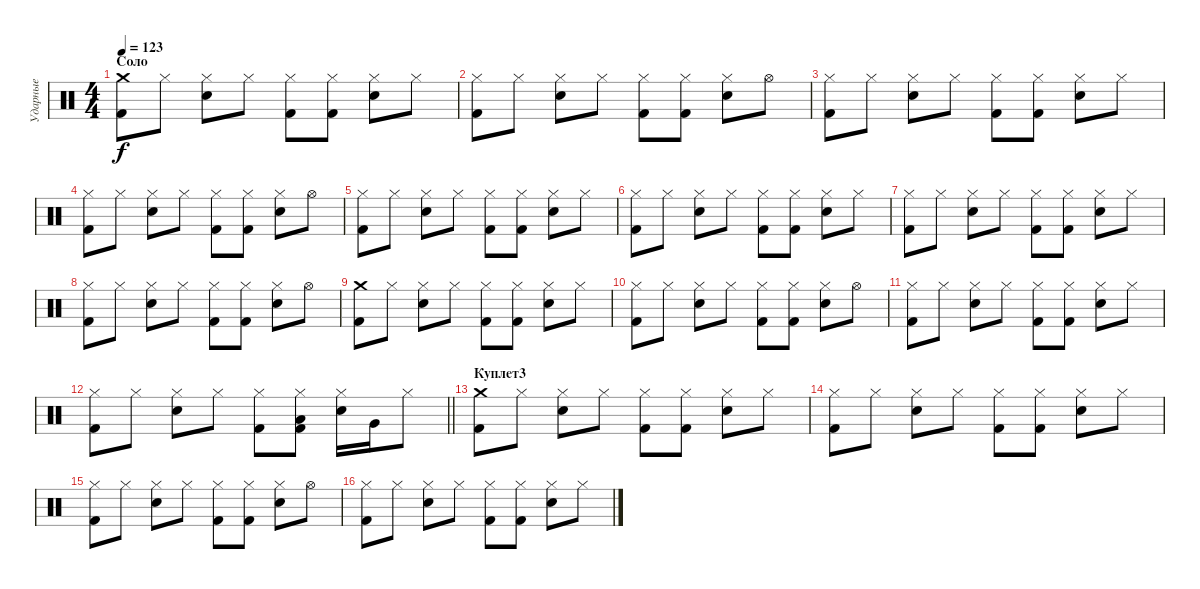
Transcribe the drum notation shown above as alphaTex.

\track ("Ударные" "Ударные") {instrument percussion}
\staff {score}
\articulation defaults
\ts (4 4)
\section ("" "Соло")
\tempo 123
\clef neutral
\ks c
("Crash medium (hit)" "Kick (hit) 2").8{dy f} "Hi-Hat (closed)".8 ("Hi-Hat (closed)" "Electric Snare (hit)").8 "Hi-Hat (closed)".8 ("Hi-Hat (closed)" "Kick (hit) 2").8 ("Hi-Hat (closed)" "Kick (hit) 2").8 ("Hi-Hat (closed)" "Electric Snare (hit)").8 "Hi-Hat (closed)".8 |
("Hi-Hat (closed)" "Kick (hit) 2").8 "Hi-Hat (closed)".8 ("Hi-Hat (closed)" "Electric Snare (hit)").8 "Hi-Hat (closed)".8 ("Hi-Hat (closed)" "Kick (hit) 2").8 ("Hi-Hat (closed)" "Kick (hit) 2").8 ("Hi-Hat (closed)" "Electric Snare (hit)").8 "Hi-Hat (open)".8 |
("Hi-Hat (closed)" "Kick (hit) 2").8 "Hi-Hat (closed)".8 ("Hi-Hat (closed)" "Electric Snare (hit)").8 "Hi-Hat (closed)".8 ("Hi-Hat (closed)" "Kick (hit) 2").8 ("Hi-Hat (closed)" "Kick (hit) 2").8 ("Hi-Hat (closed)" "Electric Snare (hit)").8 "Hi-Hat (closed)".8 |
("Hi-Hat (closed)" "Kick (hit) 2").8 "Hi-Hat (closed)".8 ("Hi-Hat (closed)" "Electric Snare (hit)").8 "Hi-Hat (closed)".8 ("Hi-Hat (closed)" "Kick (hit) 2").8 ("Hi-Hat (closed)" "Kick (hit) 2").8 ("Hi-Hat (closed)" "Electric Snare (hit)").8 "Hi-Hat (open)".8 |
("Hi-Hat (closed)" "Kick (hit) 2").8 "Hi-Hat (closed)".8 ("Hi-Hat (closed)" "Electric Snare (hit)").8 "Hi-Hat (closed)".8 ("Hi-Hat (closed)" "Kick (hit) 2").8 ("Hi-Hat (closed)" "Kick (hit) 2").8 ("Hi-Hat (closed)" "Electric Snare (hit)").8 "Hi-Hat (closed)".8 |
("Hi-Hat (closed)" "Kick (hit) 2").8 "Hi-Hat (closed)".8 ("Hi-Hat (closed)" "Electric Snare (hit)").8 "Hi-Hat (closed)".8 ("Hi-Hat (closed)" "Kick (hit) 2").8 ("Hi-Hat (closed)" "Kick (hit) 2").8 ("Hi-Hat (closed)" "Electric Snare (hit)").8 "Hi-Hat (closed)".8 |
("Hi-Hat (closed)" "Kick (hit) 2").8 "Hi-Hat (closed)".8 ("Hi-Hat (closed)" "Electric Snare (hit)").8 "Hi-Hat (closed)".8 ("Hi-Hat (closed)" "Kick (hit) 2").8 ("Hi-Hat (closed)" "Kick (hit) 2").8 ("Hi-Hat (closed)" "Electric Snare (hit)").8 "Hi-Hat (closed)".8 |
("Hi-Hat (closed)" "Kick (hit) 2").8 "Hi-Hat (closed)".8 ("Hi-Hat (closed)" "Electric Snare (hit)").8 "Hi-Hat (closed)".8 ("Hi-Hat (closed)" "Kick (hit) 2").8 ("Hi-Hat (closed)" "Kick (hit) 2").8 ("Hi-Hat (closed)" "Electric Snare (hit)").8 "Hi-Hat (open)".8 |
("Crash medium (hit)" "Kick (hit) 2").8 "Hi-Hat (closed)".8 ("Hi-Hat (closed)" "Electric Snare (hit)").8 "Hi-Hat (closed)".8 ("Hi-Hat (closed)" "Kick (hit) 2").8 ("Hi-Hat (closed)" "Kick (hit) 2").8 ("Hi-Hat (closed)" "Electric Snare (hit)").8 "Hi-Hat (closed)".8 |
("Hi-Hat (closed)" "Kick (hit) 2").8 "Hi-Hat (closed)".8 ("Hi-Hat (closed)" "Electric Snare (hit)").8 "Hi-Hat (closed)".8 ("Hi-Hat (closed)" "Kick (hit) 2").8 ("Hi-Hat (closed)" "Kick (hit) 2").8 ("Hi-Hat (closed)" "Electric Snare (hit)").8 "Hi-Hat (open)".8 |
("Hi-Hat (closed)" "Kick (hit) 2").8 "Hi-Hat (closed)".8 ("Hi-Hat (closed)" "Electric Snare (hit)").8 "Hi-Hat (closed)".8 ("Hi-Hat (closed)" "Kick (hit) 2").8 ("Hi-Hat (closed)" "Kick (hit) 2").8 ("Hi-Hat (closed)" "Electric Snare (hit)").8 "Hi-Hat (closed)".8 |
\barLineRight lightlight
("Hi-Hat (closed)" "Kick (hit) 2").8 "Hi-Hat (closed)".8 ("Hi-Hat (closed)" "Electric Snare (hit)").8 "Hi-Hat (closed)".8 ("Hi-Hat (closed)" "Kick (hit) 2").8 ("Hi-Hat (closed)" "Low Tom (hit)" "Kick (hit) 2").8 ("Hi-Hat (closed)" "Electric Snare (hit)").16 "Very Low Tom (hit)".16 "Hi-Hat (closed)".8 |
\section ("" "Куплет3")
("Crash medium (hit)" "Kick (hit) 2").8 "Hi-Hat (closed)".8 ("Hi-Hat (closed)" "Electric Snare (hit)").8 "Hi-Hat (closed)".8 ("Hi-Hat (closed)" "Kick (hit) 2").8 ("Hi-Hat (closed)" "Kick (hit) 2").8 ("Hi-Hat (closed)" "Electric Snare (hit)").8 "Hi-Hat (closed)".8 |
("Hi-Hat (closed)" "Kick (hit) 2").8 "Hi-Hat (closed)".8 ("Hi-Hat (closed)" "Electric Snare (hit)").8 "Hi-Hat (closed)".8 ("Hi-Hat (closed)" "Kick (hit) 2").8 ("Hi-Hat (closed)" "Kick (hit) 2").8 ("Hi-Hat (closed)" "Electric Snare (hit)").8 "Hi-Hat (closed)".8 |
("Hi-Hat (closed)" "Kick (hit) 2").8 "Hi-Hat (closed)".8 ("Hi-Hat (closed)" "Electric Snare (hit)").8 "Hi-Hat (closed)".8 ("Hi-Hat (closed)" "Kick (hit) 2").8 ("Hi-Hat (closed)" "Kick (hit) 2").8 ("Hi-Hat (closed)" "Electric Snare (hit)").8 "Hi-Hat (open)".8 |
("Hi-Hat (closed)" "Kick (hit) 2").8 "Hi-Hat (closed)".8 ("Hi-Hat (closed)" "Electric Snare (hit)").8 "Hi-Hat (closed)".8 ("Hi-Hat (closed)" "Kick (hit) 2").8 ("Hi-Hat (closed)" "Kick (hit) 2").8 ("Hi-Hat (closed)" "Electric Snare (hit)").8 "Hi-Hat (closed)".8
